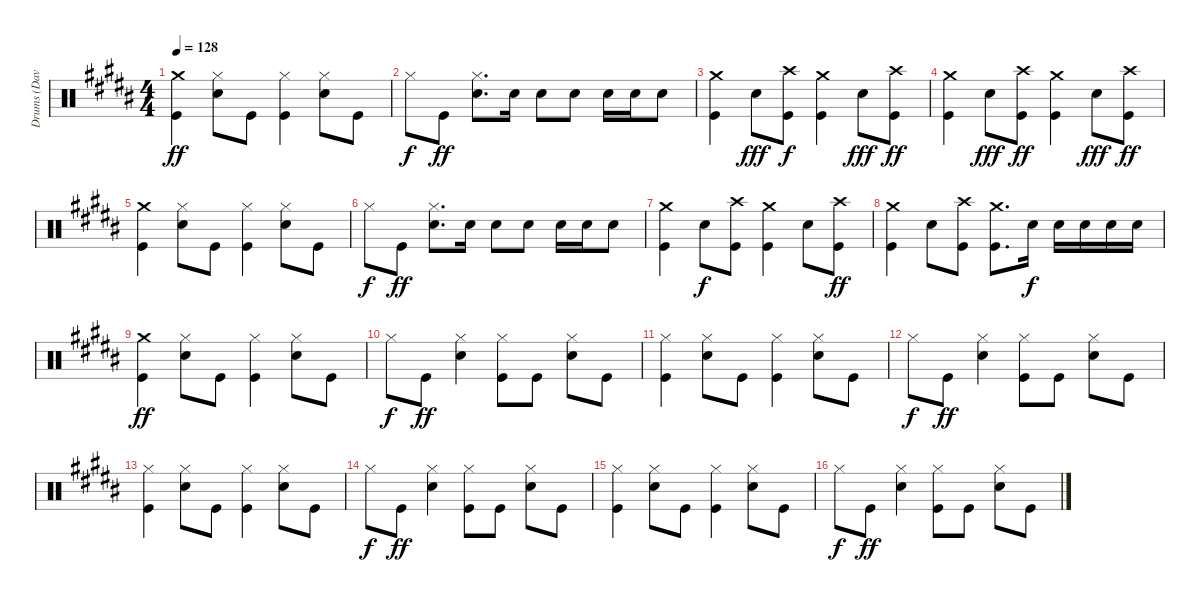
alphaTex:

\track ("Drums (Dave)" "Drums (Dav") {instrument percussion}
\staff {score}
\articulation defaults
\ts (4 4)
\tempo 128
\clef neutral
\ks b
("Crash medium (hit)" "Kick (hit)").4{dy ff} ("Hi-Hat (closed)" "Electric Snare (hit)").8 "Kick (hit)".8 ("Hi-Hat (closed)" "Kick (hit)").4 ("Hi-Hat (closed)" "Electric Snare (hit)").8 "Kick (hit)".8 |
"Hi-Hat (closed)".8{dy f} "Kick (hit)".8{dy ff} ("Hi-Hat (closed)" "Electric Snare (hit)").8{d} "Electric Snare (hit)".16 "Electric Snare (hit)".8 "Electric Snare (hit)".8 "Electric Snare (hit)".16 "Electric Snare (hit)".16 "Electric Snare (hit)".8 |
("Crash medium (hit)" "Kick (hit)").4 "Electric Snare (hit)".8{dy fff} ("Crash high (hit)" "Kick (hit)").8{dy f} ("Crash medium (hit)" "Kick (hit)").4 "Electric Snare (hit)".8{dy fff} ("Crash high (hit)" "Kick (hit)").8{dy ff} |
("Crash medium (hit)" "Kick (hit)").4 "Electric Snare (hit)".8{dy fff} ("Crash high (hit)" "Kick (hit)").8{dy ff} ("Crash medium (hit)" "Kick (hit)").4 "Electric Snare (hit)".8{dy fff} ("Crash high (hit)" "Kick (hit)").8{dy ff} |
("Crash medium (hit)" "Kick (hit)").4 ("Hi-Hat (closed)" "Electric Snare (hit)").8 "Kick (hit)".8 ("Hi-Hat (closed)" "Kick (hit)").4 ("Hi-Hat (closed)" "Electric Snare (hit)").8 "Kick (hit)".8 |
"Hi-Hat (closed)".8{dy f} "Kick (hit)".8{dy ff} ("Hi-Hat (closed)" "Electric Snare (hit)").8{d} "Electric Snare (hit)".16 "Electric Snare (hit)".8 "Electric Snare (hit)".8 "Electric Snare (hit)".16 "Electric Snare (hit)".16 "Electric Snare (hit)".8 |
("Crash medium (hit)" "Kick (hit)").4 "Electric Snare (hit)".8{dy f} ("Crash high (hit)" "Kick (hit)").8 ("Crash medium (hit)" "Kick (hit)").4 "Electric Snare (hit)".8 ("Crash high (hit)" "Kick (hit)").8{dy ff} |
("Crash medium (hit)" "Kick (hit)").4 "Electric Snare (hit)".8 ("Crash high (hit)" "Kick (hit)").8 ("Crash medium (hit)" "Kick (hit)").8{d} "Electric Snare (hit)".16{dy f} "Electric Snare (hit)".16 "Electric Snare (hit)".16 "Electric Snare (hit)".16 "Electric Snare (hit)".16 |
("Crash medium (hit)" "Kick (hit)").4{dy ff} ("Hi-Hat (closed)" "Electric Snare (hit)").8 "Kick (hit)".8 ("Hi-Hat (closed)" "Kick (hit)").4 ("Hi-Hat (closed)" "Electric Snare (hit)").8 "Kick (hit)".8 |
"Hi-Hat (closed)".8{dy f} "Kick (hit)".8{dy ff} ("Hi-Hat (closed)" "Electric Snare (hit)").4 ("Hi-Hat (closed)" "Kick (hit)").8 "Kick (hit)".8 ("Hi-Hat (closed)" "Electric Snare (hit)").8 "Kick (hit)".8 |
("Hi-Hat (closed)" "Kick (hit)").4 ("Hi-Hat (closed)" "Electric Snare (hit)").8 "Kick (hit)".8 ("Hi-Hat (closed)" "Kick (hit)").4 ("Hi-Hat (closed)" "Electric Snare (hit)").8 "Kick (hit)".8 |
"Hi-Hat (closed)".8{dy f} "Kick (hit)".8{dy ff} ("Hi-Hat (closed)" "Electric Snare (hit)").4 ("Hi-Hat (closed)" "Kick (hit)").8 "Kick (hit)".8 ("Hi-Hat (closed)" "Electric Snare (hit)").8 "Kick (hit)".8 |
("Hi-Hat (closed)" "Kick (hit)").4 ("Hi-Hat (closed)" "Electric Snare (hit)").8 "Kick (hit)".8 ("Hi-Hat (closed)" "Kick (hit)").4 ("Hi-Hat (closed)" "Electric Snare (hit)").8 "Kick (hit)".8 |
"Hi-Hat (closed)".8{dy f} "Kick (hit)".8{dy ff} ("Hi-Hat (closed)" "Electric Snare (hit)").4 ("Hi-Hat (closed)" "Kick (hit)").8 "Kick (hit)".8 ("Hi-Hat (closed)" "Electric Snare (hit)").8 "Kick (hit)".8 |
("Hi-Hat (closed)" "Kick (hit)").4 ("Hi-Hat (closed)" "Electric Snare (hit)").8 "Kick (hit)".8 ("Hi-Hat (closed)" "Kick (hit)").4 ("Hi-Hat (closed)" "Electric Snare (hit)").8 "Kick (hit)".8 |
"Hi-Hat (closed)".8{dy f} "Kick (hit)".8{dy ff} ("Hi-Hat (closed)" "Electric Snare (hit)").4 ("Hi-Hat (closed)" "Kick (hit)").8 "Kick (hit)".8 ("Hi-Hat (closed)" "Electric Snare (hit)").8 "Kick (hit)".8
